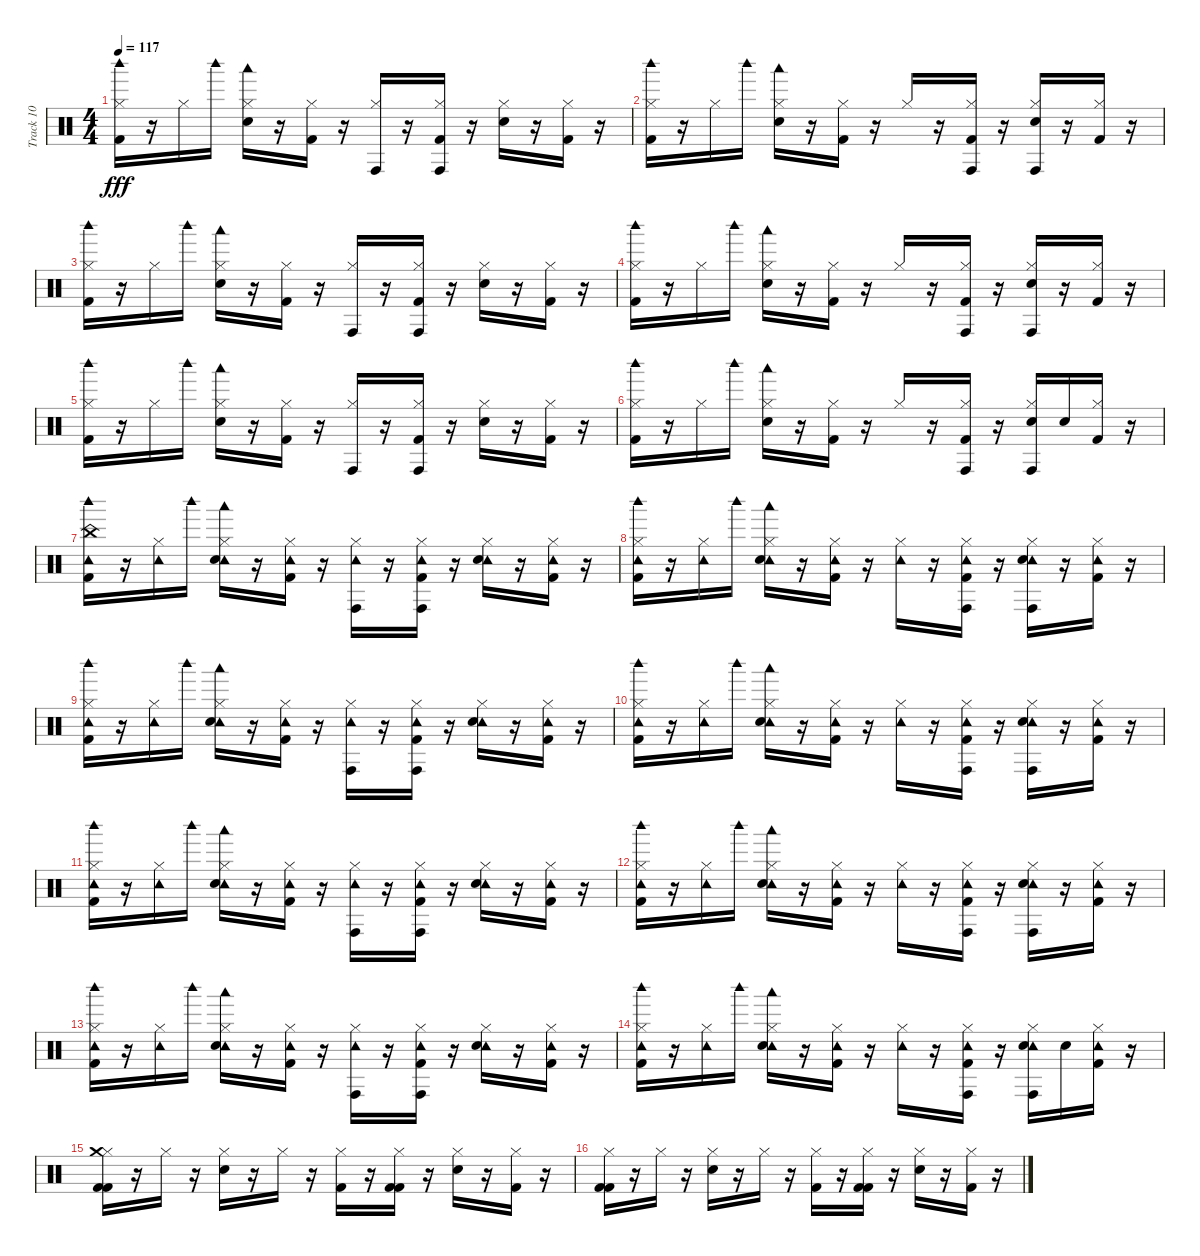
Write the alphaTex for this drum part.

\track ("Track 10" "Track 10") {instrument percussion}
\staff {score}
\articulation defaults
\ts (4 4)
\tempo 117
\clef neutral
\ks c
("Hi-Hat (closed)" "Kick (hit) 2" "Woodblock high (hit)").16{dy fff} r.16 "Hi-Hat (closed)".16 "Woodblock high (hit)".16 ("Hi-Hat (closed)" "Snare (hit) 2" "Woodblock low (hit)").16 r.16 ("Hi-Hat (closed)" "Kick (hit) 2").16 r.16 ("Hi-Hat (closed)" "Conga high (hit)").16 r.16 ("Hi-Hat (closed)" "Kick (hit) 2" "Conga high (hit)").16 r.16 ("Hi-Hat (closed)" "Snare (hit) 2").16 r.16 ("Hi-Hat (closed)" "Kick (hit) 2").16 r.16 |
("Hi-Hat (closed)" "Kick (hit) 2" "Woodblock high (hit)").16 r.16 "Hi-Hat (closed)".16 "Woodblock high (hit)".16 ("Hi-Hat (closed)" "Snare (hit) 2" "Woodblock low (hit)").16 r.16 ("Hi-Hat (closed)" "Kick (hit) 2").16 r.16 "Hi-Hat (closed)".16 r.16 ("Hi-Hat (closed)" "Kick (hit) 2" "Conga high (hit)").16 r.16 ("Hi-Hat (closed)" "Snare (hit) 2" "Conga high (hit)").16 r.16 ("Hi-Hat (closed)" "Kick (hit) 2").16 r.16 |
("Kick (hit) 2" "Hi-Hat (closed)" "Woodblock high (hit)").16 r.16 "Hi-Hat (closed)".16 "Woodblock high (hit)".16 ("Snare (hit) 2" "Hi-Hat (closed)" "Woodblock low (hit)").16 r.16 ("Kick (hit) 2" "Hi-Hat (closed)").16 r.16 ("Hi-Hat (closed)" "Conga high (hit)").16 r.16 ("Kick (hit) 2" "Hi-Hat (closed)" "Conga high (hit)").16 r.16 ("Snare (hit) 2" "Hi-Hat (closed)").16 r.16 ("Kick (hit) 2" "Hi-Hat (closed)").16 r.16 |
("Kick (hit) 2" "Hi-Hat (closed)" "Woodblock high (hit)").16 r.16 "Hi-Hat (closed)".16 "Woodblock high (hit)".16 ("Snare (hit) 2" "Hi-Hat (closed)" "Woodblock low (hit)").16 r.16 ("Kick (hit) 2" "Hi-Hat (closed)").16 r.16 "Hi-Hat (closed)".16 r.16 ("Kick (hit) 2" "Hi-Hat (closed)" "Conga high (hit)").16 r.16 ("Snare (hit) 2" "Hi-Hat (closed)" "Conga high (hit)").16 r.16 ("Kick (hit) 2" "Hi-Hat (closed)").16 r.16 |
("Hi-Hat (closed)" "Kick (hit) 2" "Woodblock high (hit)").16 r.16 "Hi-Hat (closed)".16 "Woodblock high (hit)".16 ("Hi-Hat (closed)" "Snare (hit) 2" "Woodblock low (hit)").16 r.16 ("Hi-Hat (closed)" "Kick (hit) 2").16 r.16 ("Hi-Hat (closed)" "Conga high (hit)").16 r.16 ("Hi-Hat (closed)" "Kick (hit) 2" "Conga high (hit)").16 r.16 ("Hi-Hat (closed)" "Snare (hit) 2").16 r.16 ("Hi-Hat (closed)" "Kick (hit) 2").16 r.16 |
("Hi-Hat (closed)" "Kick (hit) 2" "Woodblock high (hit)").16 r.16 "Hi-Hat (closed)".16 "Woodblock high (hit)".16 ("Hi-Hat (closed)" "Snare (hit) 2" "Woodblock low (hit)").16 r.16 ("Hi-Hat (closed)" "Kick (hit) 2").16 r.16 "Hi-Hat (closed)".16 r.16 ("Hi-Hat (closed)" "Kick (hit) 2" "Conga high (hit)").16 r.16 ("Hi-Hat (closed)" "Snare (hit) 2" "Conga high (hit)").16 "Snare (hit) 2".16 ("Hi-Hat (closed)" "Kick (hit) 2").16 r.16 |
("Tambourine (hit)" "Kick (hit) 2" "China (hit)" "Woodblock high (hit)").16 r.16 ("Tambourine (hit)" "Hi-Hat (closed)").16 "Woodblock high (hit)".16 ("Tambourine (hit)" "Snare (hit) 2" "Hi-Hat (closed)" "Woodblock low (hit)").16 r.16 ("Tambourine (hit)" "Kick (hit) 2" "Hi-Hat (closed)").16 r.16 ("Tambourine (hit)" "Hi-Hat (closed)" "Conga high (hit)").16 r.16 ("Tambourine (hit)" "Kick (hit) 2" "Hi-Hat (closed)" "Conga high (hit)").16 r.16 ("Tambourine (hit)" "Snare (hit) 2" "Hi-Hat (closed)").16 r.16 ("Tambourine (hit)" "Kick (hit) 2" "Hi-Hat (closed)").16 r.16 |
("Tambourine (hit)" "Kick (hit) 2" "Hi-Hat (closed)" "Woodblock high (hit)").16 r.16 ("Tambourine (hit)" "Hi-Hat (closed)").16 "Woodblock high (hit)".16 ("Tambourine (hit)" "Snare (hit) 2" "Hi-Hat (closed)" "Woodblock low (hit)").16 r.16 ("Tambourine (hit)" "Kick (hit) 2" "Hi-Hat (closed)").16 r.16 ("Tambourine (hit)" "Hi-Hat (closed)").16 r.16 ("Tambourine (hit)" "Kick (hit) 2" "Hi-Hat (closed)" "Conga high (hit)").16 r.16 ("Tambourine (hit)" "Snare (hit) 2" "Hi-Hat (closed)" "Conga high (hit)").16 r.16 ("Tambourine (hit)" "Kick (hit) 2" "Hi-Hat (closed)").16 r.16 |
("Tambourine (hit)" "Kick (hit) 2" "Hi-Hat (closed)" "Woodblock high (hit)").16 r.16 ("Tambourine (hit)" "Hi-Hat (closed)").16 "Woodblock high (hit)".16 ("Tambourine (hit)" "Snare (hit) 2" "Hi-Hat (closed)" "Woodblock low (hit)").16 r.16 ("Tambourine (hit)" "Kick (hit) 2" "Hi-Hat (closed)").16 r.16 ("Tambourine (hit)" "Hi-Hat (closed)" "Conga high (hit)").16 r.16 ("Tambourine (hit)" "Kick (hit) 2" "Hi-Hat (closed)" "Conga high (hit)").16 r.16 ("Tambourine (hit)" "Snare (hit) 2" "Hi-Hat (closed)").16 r.16 ("Tambourine (hit)" "Kick (hit) 2" "Hi-Hat (closed)").16 r.16 |
("Tambourine (hit)" "Kick (hit) 2" "Hi-Hat (closed)" "Woodblock high (hit)").16 r.16 ("Tambourine (hit)" "Hi-Hat (closed)").16 "Woodblock high (hit)".16 ("Tambourine (hit)" "Snare (hit) 2" "Hi-Hat (closed)" "Woodblock low (hit)").16 r.16 ("Tambourine (hit)" "Kick (hit) 2" "Hi-Hat (closed)").16 r.16 ("Tambourine (hit)" "Hi-Hat (closed)").16 r.16 ("Tambourine (hit)" "Kick (hit) 2" "Hi-Hat (closed)" "Conga high (hit)").16 r.16 ("Tambourine (hit)" "Snare (hit) 2" "Hi-Hat (closed)" "Conga high (hit)").16 r.16 ("Tambourine (hit)" "Kick (hit) 2" "Hi-Hat (closed)").16 r.16 |
("Tambourine (hit)" "Kick (hit) 2" "Hi-Hat (closed)" "Woodblock high (hit)").16 r.16 ("Tambourine (hit)" "Hi-Hat (closed)").16 "Woodblock high (hit)".16 ("Tambourine (hit)" "Snare (hit) 2" "Hi-Hat (closed)" "Woodblock low (hit)").16 r.16 ("Tambourine (hit)" "Kick (hit) 2" "Hi-Hat (closed)").16 r.16 ("Tambourine (hit)" "Hi-Hat (closed)" "Conga high (hit)").16 r.16 ("Tambourine (hit)" "Kick (hit) 2" "Hi-Hat (closed)" "Conga high (hit)").16 r.16 ("Tambourine (hit)" "Snare (hit) 2" "Hi-Hat (closed)").16 r.16 ("Tambourine (hit)" "Kick (hit) 2" "Hi-Hat (closed)").16 r.16 |
("Tambourine (hit)" "Kick (hit) 2" "Hi-Hat (closed)" "Woodblock high (hit)").16 r.16 ("Tambourine (hit)" "Hi-Hat (closed)").16 "Woodblock high (hit)".16 ("Tambourine (hit)" "Snare (hit) 2" "Hi-Hat (closed)" "Woodblock low (hit)").16 r.16 ("Tambourine (hit)" "Kick (hit) 2" "Hi-Hat (closed)").16 r.16 ("Tambourine (hit)" "Hi-Hat (closed)").16 r.16 ("Tambourine (hit)" "Kick (hit) 2" "Hi-Hat (closed)" "Conga high (hit)").16 r.16 ("Tambourine (hit)" "Snare (hit) 2" "Hi-Hat (closed)" "Conga high (hit)").16 r.16 ("Tambourine (hit)" "Kick (hit) 2" "Hi-Hat (closed)").16 r.16 |
("Tambourine (hit)" "Hi-Hat (closed)" "Kick (hit) 2" "Woodblock high (hit)").16 r.16 ("Tambourine (hit)" "Hi-Hat (closed)").16 "Woodblock high (hit)".16 ("Tambourine (hit)" "Hi-Hat (closed)" "Snare (hit) 2" "Woodblock low (hit)").16 r.16 ("Tambourine (hit)" "Hi-Hat (closed)" "Kick (hit) 2").16 r.16 ("Tambourine (hit)" "Hi-Hat (closed)" "Conga high (hit)").16 r.16 ("Tambourine (hit)" "Hi-Hat (closed)" "Kick (hit) 2" "Conga high (hit)").16 r.16 ("Tambourine (hit)" "Hi-Hat (closed)" "Snare (hit) 2").16 r.16 ("Tambourine (hit)" "Hi-Hat (closed)" "Kick (hit) 2").16 r.16 |
("Tambourine (hit)" "Hi-Hat (closed)" "Kick (hit) 2" "Woodblock high (hit)").16 r.16 ("Tambourine (hit)" "Hi-Hat (closed)").16 "Woodblock high (hit)".16 ("Tambourine (hit)" "Hi-Hat (closed)" "Snare (hit) 2" "Woodblock low (hit)").16 r.16 ("Tambourine (hit)" "Hi-Hat (closed)" "Kick (hit) 2").16 r.16 ("Tambourine (hit)" "Hi-Hat (closed)").16 r.16 ("Tambourine (hit)" "Hi-Hat (closed)" "Kick (hit) 2" "Conga high (hit)").16 r.16 ("Tambourine (hit)" "Hi-Hat (closed)" "Snare (hit) 2" "Conga high (hit)").16 "Snare (hit) 2".16 ("Tambourine (hit)" "Hi-Hat (closed)" "Kick (hit) 2").16 r.16 |
("Hi-Hat (closed)" "Crash medium (hit)" "Kick (hit) 2" "Kick (hit) 2").16 r.16 "Hi-Hat (closed)".16 r.16 ("Hi-Hat (closed)" "Snare (hit) 2").16 r.16 "Hi-Hat (closed)".16 r.16 ("Hi-Hat (closed)" "Kick (hit) 2").16 r.16 ("Hi-Hat (closed)" "Kick (hit) 2" "Kick (hit) 2").16 r.16 ("Hi-Hat (closed)" "Snare (hit) 2").16 r.16 ("Hi-Hat (closed)" "Kick (hit) 2").16 r.16 |
("Hi-Hat (closed)" "Kick (hit) 2" "Kick (hit) 2").16 r.16 "Hi-Hat (closed)".16 r.16 ("Hi-Hat (closed)" "Snare (hit) 2").16 r.16 "Hi-Hat (closed)".16 r.16 ("Hi-Hat (closed)" "Kick (hit) 2").16 r.16 ("Hi-Hat (closed)" "Kick (hit) 2" "Kick (hit) 2").16 r.16 ("Hi-Hat (closed)" "Snare (hit) 2").16 r.16 ("Hi-Hat (closed)" "Kick (hit) 2").16 r.16
